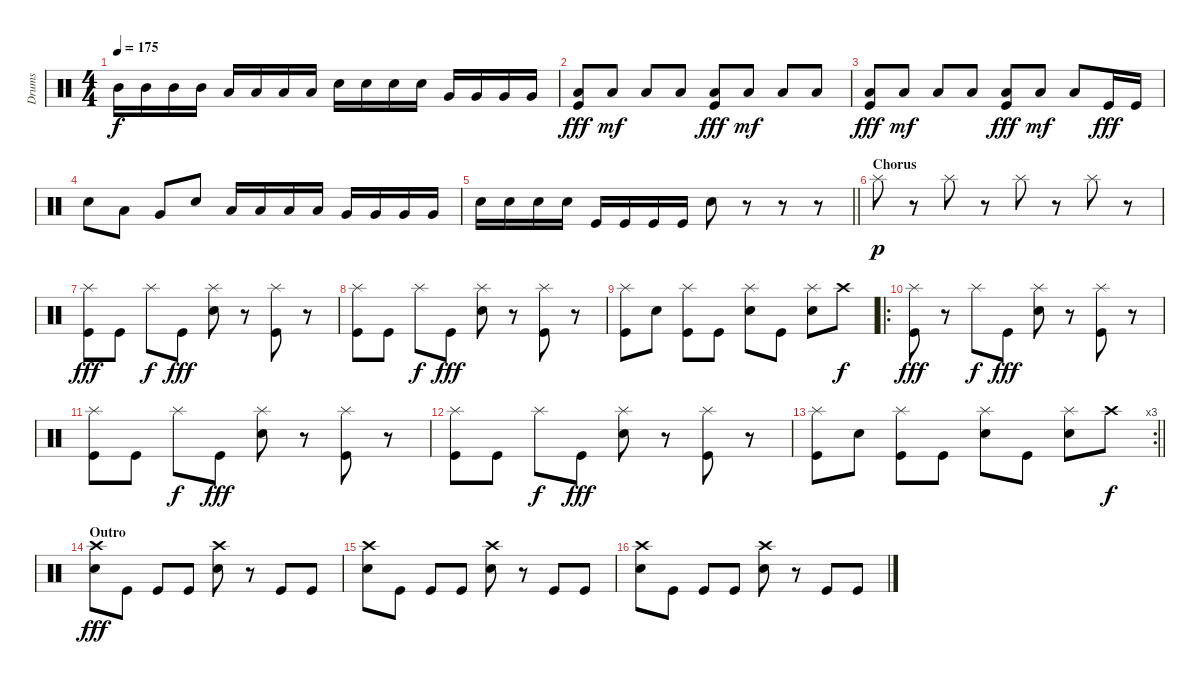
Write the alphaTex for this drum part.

\track ("Drums" "Drums") {instrument percussion}
\staff {score}
\articulation defaults
\ts (4 4)
\tempo 175
\clef neutral
\ks c "Mid Tom (hit)".16{dy f} "Mid Tom (hit)".16 "Mid Tom (hit)".16 "Mid Tom (hit)".16 "Low Tom (hit)".16 "Low Tom (hit)".16 "Low Tom (hit)".16 "Low Tom (hit)".16 "Electric Snare (hit)".16 "Electric Snare (hit)".16 "Electric Snare (hit)".16 "Electric Snare (hit)".16 "Very Low Tom (hit)".16 "Very Low Tom (hit)".16 "Very Low Tom (hit)".16 "Very Low Tom (hit)".16
|
("Low Floor Tom (hit)" "Kick (hit)").8{dy fff} "Low Floor Tom (hit)".8{dy mf} "Low Floor Tom (hit)".8 "Low Floor Tom (hit)".8 ("Low Floor Tom (hit)" "Kick (hit)").8{dy fff} "Low Floor Tom (hit)".8{dy mf} "Low Floor Tom (hit)".8 "Low Floor Tom (hit)".8 |
("Low Floor Tom (hit)" "Kick (hit)").8{dy fff} "Low Floor Tom (hit)".8{dy mf} "Low Floor Tom (hit)".8 "Low Floor Tom (hit)".8 ("Low Floor Tom (hit)" "Kick (hit)").8{dy fff} "Low Floor Tom (hit)".8{dy mf} "Low Floor Tom (hit)".8 "Kick (hit)".16{dy fff} "Kick (hit)".16 |
"Electric Snare (hit)".8 "Low Tom (hit)".8 "Very Low Tom (hit)".8 "Electric Snare (hit)".8 "Low Tom (hit)".16 "Low Tom (hit)".16 "Low Tom (hit)".16 "Low Tom (hit)".16 "Very Low Tom (hit)".16 "Very Low Tom (hit)".16 "Very Low Tom (hit)".16 "Very Low Tom (hit)".16 |
\barLineRight lightlight "Electric Snare (hit)".16 "Electric Snare (hit)".16 "Electric Snare (hit)".16 "Electric Snare (hit)".16 "Kick (hit)".16 "Kick (hit)".16 "Kick (hit)".16 "Kick (hit)".16 "Electric Snare (hit)".8
r.8 r.8 r.8 |
\section ("" "Chorus")
"Splash (hit)".8{dy p} r.8 "Splash (hit)".8 r.8 "Splash (hit)".8 r.8 "Splash (hit)".8 r.8 |
("Splash (hit)" "Kick (hit)").8{dy fff} "Kick (hit)".8 "Splash (hit)".8{dy f} "Kick (hit)".8{dy fff} ("Splash (hit)" "Electric Snare (hit)").8 r.8 ("Splash (hit)" "Kick (hit)").8 r.8 |
("Splash (hit)" "Kick (hit)").8 "Kick (hit)".8 "Splash (hit)".8{dy f} "Kick (hit)".8{dy fff} ("Splash (hit)" "Electric Snare (hit)").8 r.8 ("Splash (hit)" "Kick (hit)").8 r.8 |
("Splash (hit)" "Kick (hit)").8 "Electric Snare (hit)".8 ("Splash (hit)" "Kick (hit)").8 "Kick (hit)".8 ("Splash (hit)" "Electric Snare (hit)").8 "Kick (hit)".8 ("Splash (hit)" "Electric Snare (hit)").8 "Crash high (hit)".8{dy f} |
\ro
("Splash (hit)" "Kick (hit)").8{dy fff} r.8 "Splash (hit)".8{dy f} "Kick (hit)".8{dy fff} ("Splash (hit)" "Electric Snare (hit)").8 r.8 ("Splash (hit)" "Kick (hit)").8 r.8 |
("Splash (hit)" "Kick (hit)").8 "Kick (hit)".8 "Splash (hit)".8{dy f} "Kick (hit)".8{dy fff} ("Splash (hit)" "Electric Snare (hit)").8 r.8 ("Splash (hit)" "Kick (hit)").8 r.8 |
("Splash (hit)" "Kick (hit)").8 "Kick (hit)".8 "Splash (hit)".8{dy f} "Kick (hit)".8{dy fff} ("Splash (hit)" "Electric Snare (hit)").8 r.8 ("Splash (hit)" "Kick (hit)").8 r.8 |
\rc 3
\barLineRight lightlight
("Splash (hit)" "Kick (hit)").8 "Electric Snare (hit)".8 ("Splash (hit)" "Kick (hit)").8 "Kick (hit)".8 ("Splash (hit)" "Electric Snare (hit)").8 "Kick (hit)".8 ("Splash (hit)" "Electric Snare (hit)").8 "Crash high (hit)".8{dy f} |
\section ("" "Outro")
("Crash high (hit)" "Electric Snare (hit)").8{dy fff} "Kick (hit)".8 "Kick (hit)".8 "Kick (hit)".8 ("Crash high (hit)" "Electric Snare (hit)").8 r.8 "Kick (hit)".8 "Kick (hit)".8 |
("Crash high (hit)" "Electric Snare (hit)").8 "Kick (hit)".8 "Kick (hit)".8 "Kick (hit)".8 ("Crash high (hit)" "Electric Snare (hit)").8 r.8 "Kick (hit)".8 "Kick (hit)".8 |
("Crash high (hit)" "Electric Snare (hit)").8 "Kick (hit)".8 "Kick (hit)".8 "Kick (hit)".8 ("Crash high (hit)" "Electric Snare (hit)").8 r.8 "Kick (hit)".8 "Kick (hit)".8
